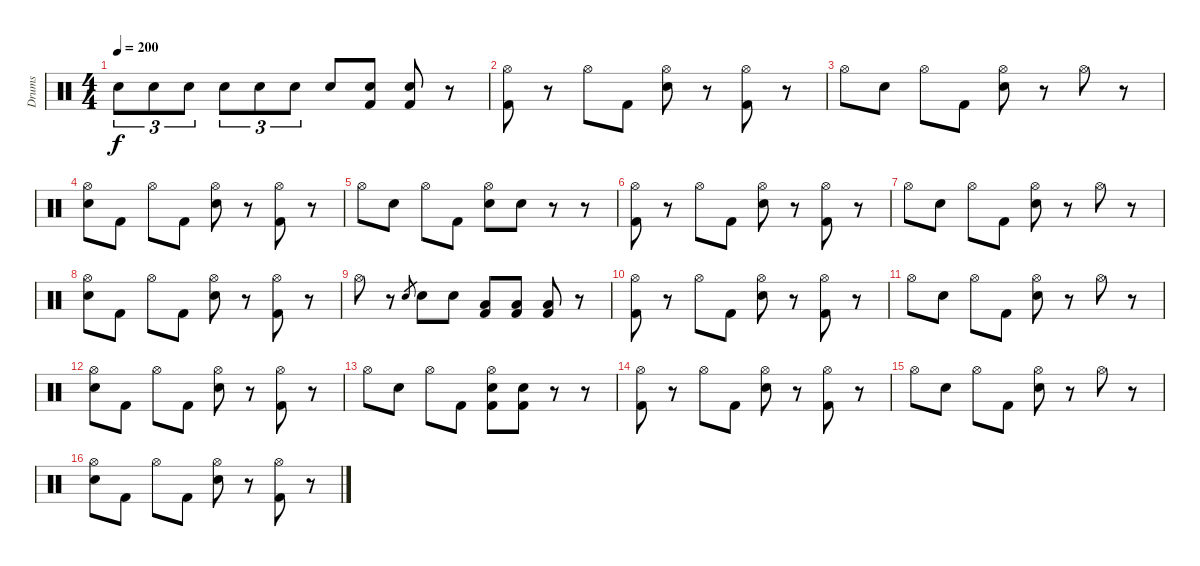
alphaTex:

\track ("Drums" "Drums") {instrument percussion}
\staff {score}
\articulation defaults
\ts (4 4)
\tempo 200
\clef neutral
\ks c "Electric Snare (hit)".8{tu (3 2) dy f} "Electric Snare (hit)".8{tu (3 2)} "Electric Snare (hit)".8{tu (3 2)} "Electric Snare (hit)".8{tu (3 2)} "Electric Snare (hit)".8{tu (3 2)} "Electric Snare (hit)".8{tu (3 2)} "Electric Snare (hit)".8
("Electric Snare (hit)" "Kick (hit) 2").8 ("Electric Snare (hit)" "Kick (hit) 2").8 r.8 |
("Hi-Hat (open)" "Kick (hit) 2").8 r.8 "Hi-Hat (open)".8 "Kick (hit) 2".8 ("Hi-Hat (open)" "Electric Snare (hit)").8 r.8 ("Hi-Hat (open)" "Kick (hit) 2").8 r.8 |
"Hi-Hat (open)".8 "Electric Snare (hit)".8 "Hi-Hat (open)".8 "Kick (hit) 2".8 ("Hi-Hat (open)" "Electric Snare (hit)").8 r.8 "Hi-Hat (open)".8 r.8 |
("Hi-Hat (open)" "Electric Snare (hit)").8 "Kick (hit) 2".8 "Hi-Hat (open)".8 "Kick (hit) 2".8 ("Hi-Hat (open)" "Electric Snare (hit)").8 r.8 ("Hi-Hat (open)" "Kick (hit) 2").8 r.8 |
"Hi-Hat (open)".8 "Electric Snare (hit)".8 "Hi-Hat (open)".8 "Kick (hit) 2".8 ("Hi-Hat (open)" "Electric Snare (hit)").8 "Electric Snare (hit)".8 r.8 r.8 |
("Hi-Hat (open)" "Kick (hit) 2").8 r.8 "Hi-Hat (open)".8 "Kick (hit) 2".8 ("Hi-Hat (open)" "Electric Snare (hit)").8 r.8 ("Hi-Hat (open)" "Kick (hit) 2").8 r.8 |
"Hi-Hat (open)".8 "Electric Snare (hit)".8 "Hi-Hat (open)".8 "Kick (hit) 2".8 ("Hi-Hat (open)" "Electric Snare (hit)").8 r.8 "Hi-Hat (open)".8 r.8 |
("Hi-Hat (open)" "Electric Snare (hit)").8 "Kick (hit) 2".8 "Hi-Hat (open)".8 "Kick (hit) 2".8 ("Hi-Hat (open)" "Electric Snare (hit)").8 r.8 ("Hi-Hat (open)" "Kick (hit) 2").8 r.8 |
"Hi-Hat (open)".8 r.8 "Electric Snare (hit)".8{gr} "Electric Snare (hit)".8 "Electric Snare (hit)".8 ("Low Tom (hit)" "Kick (hit) 2").8 ("Low Tom (hit)" "Kick (hit) 2").8 ("Low Tom (hit)" "Kick (hit) 2").8 r.8 |
("Hi-Hat (open)" "Kick (hit) 2").8 r.8 "Hi-Hat (open)".8 "Kick (hit) 2".8 ("Hi-Hat (open)" "Electric Snare (hit)").8 r.8 ("Hi-Hat (open)" "Kick (hit) 2").8 r.8 |
"Hi-Hat (open)".8 "Electric Snare (hit)".8 "Hi-Hat (open)".8 "Kick (hit) 2".8 ("Hi-Hat (open)" "Electric Snare (hit)").8 r.8 "Hi-Hat (open)".8 r.8 |
("Hi-Hat (open)" "Electric Snare (hit)").8 "Kick (hit) 2".8 "Hi-Hat (open)".8 "Kick (hit) 2".8 ("Hi-Hat (open)" "Electric Snare (hit)").8 r.8 ("Hi-Hat (open)" "Kick (hit) 2").8 r.8 |
"Hi-Hat (open)".8 "Electric Snare (hit)".8 "Hi-Hat (open)".8 "Kick (hit) 2".8 ("Hi-Hat (open)" "Electric Snare (hit)" "Kick (hit) 2").8 ("Electric Snare (hit)" "Kick (hit) 2").8 r.8 r.8 |
("Hi-Hat (open)" "Kick (hit) 2").8 r.8 "Hi-Hat (open)".8 "Kick (hit) 2".8 ("Hi-Hat (open)" "Electric Snare (hit)").8 r.8 ("Hi-Hat (open)" "Kick (hit) 2").8 r.8 |
"Hi-Hat (open)".8 "Electric Snare (hit)".8 "Hi-Hat (open)".8 "Kick (hit) 2".8 ("Hi-Hat (open)" "Electric Snare (hit)").8 r.8 "Hi-Hat (open)".8 r.8 |
("Hi-Hat (open)" "Electric Snare (hit)").8 "Kick (hit) 2".8 "Hi-Hat (open)".8 "Kick (hit) 2".8 ("Hi-Hat (open)" "Electric Snare (hit)").8 r.8 ("Hi-Hat (open)" "Kick (hit) 2").8 r.8
